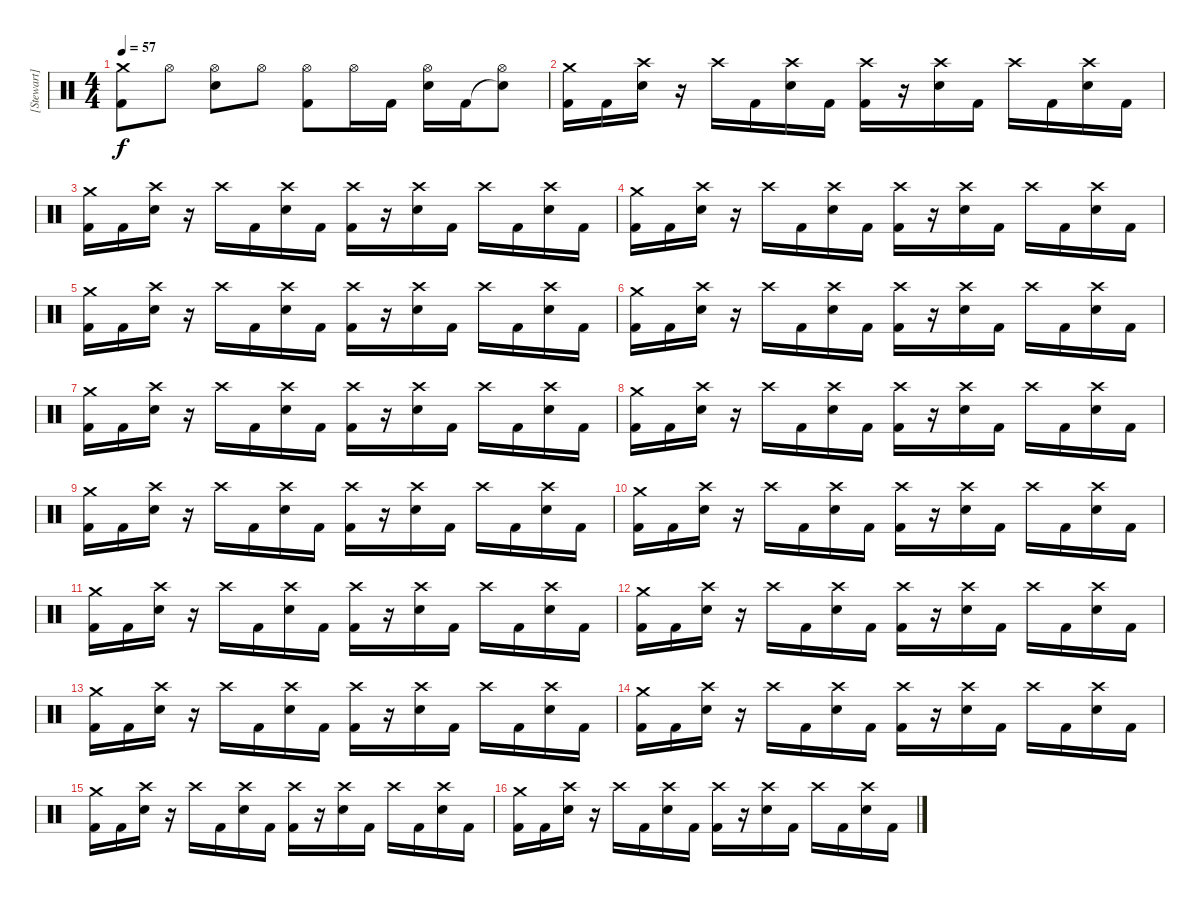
\track ("[Stewart]" "[Stewart]") {instrument percussion}
\staff {score}
\articulation defaults
\ts (4 4)
\tempo 57
\clef neutral
\ks c
("Kick (hit) 2" "Crash medium (hit)").8{dy f} "Hi-Hat (open)".8 ("Electric Snare (hit)" "Hi-Hat (open)").8 "Hi-Hat (open)".8 ("Kick (hit) 2" "Hi-Hat (open)").8 "Hi-Hat (open)".16 "Kick (hit) 2".16 ("Electric Snare (hit)" "Hi-Hat (open)").16 "Kick (hit) 2".16 ("Snare (hit)"{t} "Hi-Hat (open)").8 |
("Kick (hit) 2" "Crash medium (hit)").16 "Kick (hit) 2".16 ("Electric Snare (hit)" "Crash high (hit)").16 r.16 "Crash high (hit)".16 "Kick (hit) 2".16 ("Electric Snare (hit)" "Crash high (hit)").16 "Kick (hit) 2".16 ("Kick (hit) 2" "Crash high (hit)").16 r.16 ("Electric Snare (hit)" "Crash high (hit)").16 "Kick (hit) 2".16 "Crash high (hit)".16 "Kick (hit) 2".16 ("Electric Snare (hit)" "Crash high (hit)").16 "Kick (hit) 2".16 |
("Kick (hit) 2" "Crash medium (hit)").16 "Kick (hit) 2".16 ("Electric Snare (hit)" "Crash high (hit)").16 r.16 "Crash high (hit)".16 "Kick (hit) 2".16 ("Electric Snare (hit)" "Crash high (hit)").16 "Kick (hit) 2".16 ("Kick (hit) 2" "Crash high (hit)").16 r.16 ("Electric Snare (hit)" "Crash high (hit)").16 "Kick (hit) 2".16 "Crash high (hit)".16 "Kick (hit) 2".16 ("Electric Snare (hit)" "Crash high (hit)").16 "Kick (hit) 2".16 |
("Kick (hit) 2" "Crash medium (hit)").16 "Kick (hit) 2".16 ("Electric Snare (hit)" "Crash high (hit)").16 r.16 "Crash high (hit)".16 "Kick (hit) 2".16 ("Electric Snare (hit)" "Crash high (hit)").16 "Kick (hit) 2".16 ("Kick (hit) 2" "Crash high (hit)").16 r.16 ("Electric Snare (hit)" "Crash high (hit)").16 "Kick (hit) 2".16 "Crash high (hit)".16 "Kick (hit) 2".16 ("Electric Snare (hit)" "Crash high (hit)").16 "Kick (hit) 2".16 |
("Kick (hit) 2" "Crash medium (hit)").16 "Kick (hit) 2".16 ("Electric Snare (hit)" "Crash high (hit)").16 r.16 "Crash high (hit)".16 "Kick (hit) 2".16 ("Electric Snare (hit)" "Crash high (hit)").16 "Kick (hit) 2".16 ("Kick (hit) 2" "Crash high (hit)").16 r.16 ("Electric Snare (hit)" "Crash high (hit)").16 "Kick (hit) 2".16 "Crash high (hit)".16 "Kick (hit) 2".16 ("Electric Snare (hit)" "Crash high (hit)").16 "Kick (hit) 2".16 |
("Kick (hit) 2" "Crash medium (hit)").16 "Kick (hit) 2".16 ("Electric Snare (hit)" "Crash high (hit)").16 r.16 "Crash high (hit)".16 "Kick (hit) 2".16 ("Electric Snare (hit)" "Crash high (hit)").16 "Kick (hit) 2".16 ("Kick (hit) 2" "Crash high (hit)").16 r.16 ("Electric Snare (hit)" "Crash high (hit)").16 "Kick (hit) 2".16 "Crash high (hit)".16 "Kick (hit) 2".16 ("Electric Snare (hit)" "Crash high (hit)").16 "Kick (hit) 2".16 |
("Kick (hit) 2" "Crash medium (hit)").16 "Kick (hit) 2".16 ("Electric Snare (hit)" "Crash high (hit)").16 r.16 "Crash high (hit)".16 "Kick (hit) 2".16 ("Electric Snare (hit)" "Crash high (hit)").16 "Kick (hit) 2".16 ("Kick (hit) 2" "Crash high (hit)").16 r.16 ("Electric Snare (hit)" "Crash high (hit)").16 "Kick (hit) 2".16 "Crash high (hit)".16 "Kick (hit) 2".16 ("Electric Snare (hit)" "Crash high (hit)").16 "Kick (hit) 2".16 |
("Kick (hit) 2" "Crash medium (hit)").16 "Kick (hit) 2".16 ("Electric Snare (hit)" "Crash high (hit)").16 r.16 "Crash high (hit)".16 "Kick (hit) 2".16 ("Electric Snare (hit)" "Crash high (hit)").16 "Kick (hit) 2".16 ("Kick (hit) 2" "Crash high (hit)").16 r.16 ("Electric Snare (hit)" "Crash high (hit)").16 "Kick (hit) 2".16 "Crash high (hit)".16 "Kick (hit) 2".16 ("Electric Snare (hit)" "Crash high (hit)").16 "Kick (hit) 2".16 |
("Kick (hit) 2" "Crash medium (hit)").16 "Kick (hit) 2".16 ("Electric Snare (hit)" "Crash high (hit)").16 r.16 "Crash high (hit)".16 "Kick (hit) 2".16 ("Electric Snare (hit)" "Crash high (hit)").16 "Kick (hit) 2".16 ("Kick (hit) 2" "Crash high (hit)").16 r.16 ("Electric Snare (hit)" "Crash high (hit)").16 "Kick (hit) 2".16 "Crash high (hit)".16 "Kick (hit) 2".16 ("Electric Snare (hit)" "Crash high (hit)").16 "Kick (hit) 2".16 |
("Kick (hit) 2" "Crash medium (hit)").16 "Kick (hit) 2".16 ("Electric Snare (hit)" "Crash high (hit)").16 r.16 "Crash high (hit)".16 "Kick (hit) 2".16 ("Electric Snare (hit)" "Crash high (hit)").16 "Kick (hit) 2".16 ("Kick (hit) 2" "Crash high (hit)").16 r.16 ("Electric Snare (hit)" "Crash high (hit)").16 "Kick (hit) 2".16 "Crash high (hit)".16 "Kick (hit) 2".16 ("Electric Snare (hit)" "Crash high (hit)").16 "Kick (hit) 2".16 |
("Kick (hit) 2" "Crash medium (hit)").16 "Kick (hit) 2".16 ("Electric Snare (hit)" "Crash high (hit)").16 r.16 "Crash high (hit)".16 "Kick (hit) 2".16 ("Electric Snare (hit)" "Crash high (hit)").16 "Kick (hit) 2".16 ("Kick (hit) 2" "Crash high (hit)").16 r.16 ("Electric Snare (hit)" "Crash high (hit)").16 "Kick (hit) 2".16 "Crash high (hit)".16 "Kick (hit) 2".16 ("Electric Snare (hit)" "Crash high (hit)").16 "Kick (hit) 2".16 |
("Kick (hit) 2" "Crash medium (hit)").16 "Kick (hit) 2".16 ("Electric Snare (hit)" "Crash high (hit)").16 r.16 "Crash high (hit)".16 "Kick (hit) 2".16 ("Electric Snare (hit)" "Crash high (hit)").16 "Kick (hit) 2".16 ("Kick (hit) 2" "Crash high (hit)").16 r.16 ("Electric Snare (hit)" "Crash high (hit)").16 "Kick (hit) 2".16 "Crash high (hit)".16 "Kick (hit) 2".16 ("Electric Snare (hit)" "Crash high (hit)").16 "Kick (hit) 2".16 |
("Kick (hit) 2" "Crash medium (hit)").16 "Kick (hit) 2".16 ("Electric Snare (hit)" "Crash high (hit)").16 r.16 "Crash high (hit)".16 "Kick (hit) 2".16 ("Electric Snare (hit)" "Crash high (hit)").16 "Kick (hit) 2".16 ("Kick (hit) 2" "Crash high (hit)").16 r.16 ("Electric Snare (hit)" "Crash high (hit)").16 "Kick (hit) 2".16 "Crash high (hit)".16 "Kick (hit) 2".16 ("Electric Snare (hit)" "Crash high (hit)").16 "Kick (hit) 2".16 |
("Kick (hit) 2" "Crash medium (hit)").16 "Kick (hit) 2".16 ("Electric Snare (hit)" "Crash high (hit)").16 r.16 "Crash high (hit)".16 "Kick (hit) 2".16 ("Electric Snare (hit)" "Crash high (hit)").16 "Kick (hit) 2".16 ("Kick (hit) 2" "Crash high (hit)").16 r.16 ("Electric Snare (hit)" "Crash high (hit)").16 "Kick (hit) 2".16 "Crash high (hit)".16 "Kick (hit) 2".16 ("Electric Snare (hit)" "Crash high (hit)").16 "Kick (hit) 2".16 |
("Kick (hit) 2" "Crash medium (hit)").16 "Kick (hit) 2".16 ("Electric Snare (hit)" "Crash high (hit)").16 r.16 "Crash high (hit)".16 "Kick (hit) 2".16 ("Electric Snare (hit)" "Crash high (hit)").16 "Kick (hit) 2".16 ("Kick (hit) 2" "Crash high (hit)").16 r.16 ("Electric Snare (hit)" "Crash high (hit)").16 "Kick (hit) 2".16 "Crash high (hit)".16 "Kick (hit) 2".16 ("Electric Snare (hit)" "Crash high (hit)").16 "Kick (hit) 2".16 |
("Kick (hit) 2" "Crash medium (hit)").16 "Kick (hit) 2".16 ("Electric Snare (hit)" "Crash high (hit)").16 r.16 "Crash high (hit)".16 "Kick (hit) 2".16 ("Electric Snare (hit)" "Crash high (hit)").16 "Kick (hit) 2".16 ("Kick (hit) 2" "Crash high (hit)").16 r.16 ("Electric Snare (hit)" "Crash high (hit)").16 "Kick (hit) 2".16 "Crash high (hit)".16 "Kick (hit) 2".16 ("Electric Snare (hit)" "Crash high (hit)").16 "Kick (hit) 2".16
